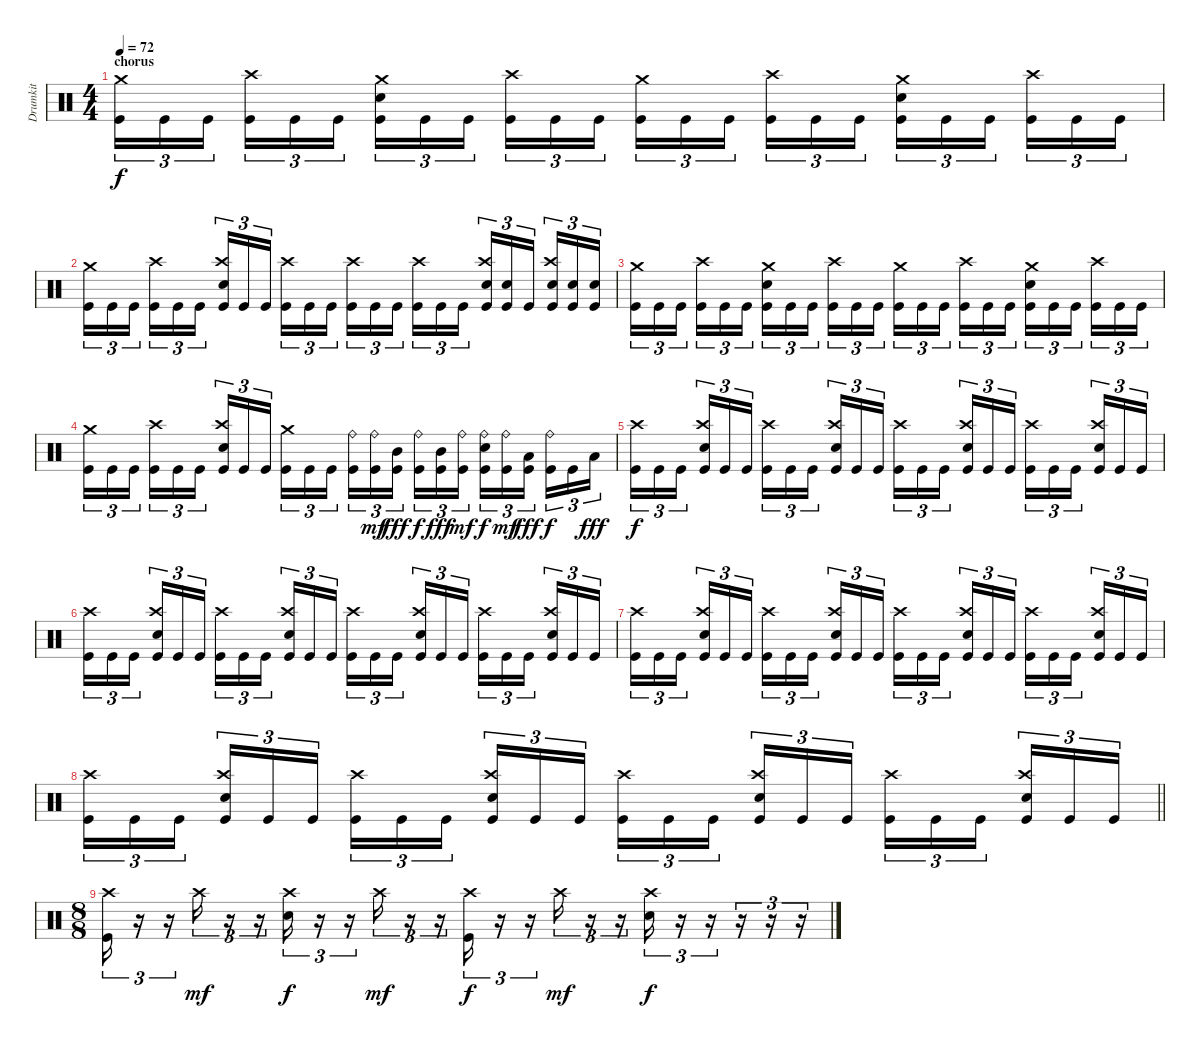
\track ("Drumkit" "Drumkit") {instrument percussion}
\staff
\articulation defaults
\ts (4 4)
\section ("" "chorus")
\tempo 72
\clef neutral
\ks c
("Crash medium (hit)" "Kick (hit)").16{tu (3 2) dy f} "Kick (hit)".16{tu (3 2)} "Kick (hit)".16{tu (3 2) beam splitsecondary} ("Crash high (hit)" "Kick (hit)").16{tu (3 2)} "Kick (hit)".16{tu (3 2)} "Kick (hit)".16{tu (3 2)} ("Crash medium (hit)" "Snare (hit) 2" "Kick (hit)").16{tu (3 2)} "Kick (hit)".16{tu (3 2)} "Kick (hit)".16{tu (3 2) beam splitsecondary} ("Crash high (hit)" "Kick (hit)").16{tu (3 2)} "Kick (hit)".16{tu (3 2)} "Kick (hit)".16{tu (3 2)} ("Crash medium (hit)" "Kick (hit)").16{tu (3 2)} "Kick (hit)".16{tu (3 2)} "Kick (hit)".16{tu (3 2) beam splitsecondary} ("Crash high (hit)" "Kick (hit)").16{tu (3 2)} "Kick (hit)".16{tu (3 2)} "Kick (hit)".16{tu (3 2)} ("Crash medium (hit)" "Snare (hit) 2" "Kick (hit)").16{tu (3 2)} "Kick (hit)".16{tu (3 2)} "Kick (hit)".16{tu (3 2) beam splitsecondary} ("Crash high (hit)" "Kick (hit)").16{tu (3 2)} "Kick (hit)".16{tu (3 2)} "Kick (hit)".16{tu (3 2)} |
("Crash medium (hit)" "Kick (hit)").16{tu (3 2)} "Kick (hit)".16{tu (3 2)} "Kick (hit)".16{tu (3 2) beam splitsecondary} ("Crash high (hit)" "Kick (hit)").16{tu (3 2)} "Kick (hit)".16{tu (3 2)} "Kick (hit)".16{tu (3 2)} ("Crash high (hit)" "Snare (hit) 2" "Kick (hit)").16{tu (3 2)} "Kick (hit)".16{tu (3 2)} "Kick (hit)".16{tu (3 2) beam splitsecondary} ("Crash high (hit)" "Kick (hit)").16{tu (3 2)} "Kick (hit)".16{tu (3 2)} "Kick (hit)".16{tu (3 2)} ("Crash high (hit)" "Kick (hit)").16{tu (3 2)} "Kick (hit)".16{tu (3 2)} "Kick (hit)".16{tu (3 2) beam splitsecondary} ("Crash high (hit)" "Kick (hit)").16{tu (3 2)} "Kick (hit)".16{tu (3 2)} "Kick (hit)".16{tu (3 2)} ("Crash high (hit)" "Snare (hit) 2" "Kick (hit)").16{tu (3 2)} ("Snare (hit) 2" "Kick (hit)").16{tu (3 2)} "Kick (hit)".16{tu (3 2) beam splitsecondary} ("Crash high (hit)" "Snare (hit) 2" "Kick (hit)").16{tu (3 2)} ("Snare (hit) 2" "Kick (hit)").16{tu (3 2)} ("Snare (hit) 2" "Kick (hit)").16{tu (3 2)} |
("Crash medium (hit)" "Kick (hit)").16{tu (3 2)} "Kick (hit)".16{tu (3 2)} "Kick (hit)".16{tu (3 2) beam splitsecondary} ("Crash high (hit)" "Kick (hit)").16{tu (3 2)} "Kick (hit)".16{tu (3 2)} "Kick (hit)".16{tu (3 2)} ("Crash medium (hit)" "Snare (hit) 2" "Kick (hit)").16{tu (3 2)} "Kick (hit)".16{tu (3 2)} "Kick (hit)".16{tu (3 2) beam splitsecondary} ("Crash high (hit)" "Kick (hit)").16{tu (3 2)} "Kick (hit)".16{tu (3 2)} "Kick (hit)".16{tu (3 2)} ("Crash medium (hit)" "Kick (hit)").16{tu (3 2)} "Kick (hit)".16{tu (3 2)} "Kick (hit)".16{tu (3 2) beam splitsecondary} ("Crash high (hit)" "Kick (hit)").16{tu (3 2)} "Kick (hit)".16{tu (3 2)} "Kick (hit)".16{tu (3 2)} ("Crash medium (hit)" "Snare (hit) 2" "Kick (hit)").16{tu (3 2)} "Kick (hit)".16{tu (3 2)} "Kick (hit)".16{tu (3 2) beam splitsecondary} ("Crash high (hit)" "Kick (hit)").16{tu (3 2)} "Kick (hit)".16{tu (3 2)} "Kick (hit)".16{tu (3 2)} |
("Crash medium (hit)" "Kick (hit)").16{tu (3 2)} "Kick (hit)".16{tu (3 2)} "Kick (hit)".16{tu (3 2) beam splitsecondary} ("Crash high (hit)" "Kick (hit)").16{tu (3 2)} "Kick (hit)".16{tu (3 2)} "Kick (hit)".16{tu (3 2)} ("Crash high (hit)" "Snare (hit) 2" "Kick (hit)").16{tu (3 2)} "Kick (hit)".16{tu (3 2)} "Kick (hit)".16{tu (3 2) beam splitsecondary} ("Crash medium (hit)" "Kick (hit)").16{tu (3 2)} "Kick (hit)".16{tu (3 2)} "Kick (hit)".16{tu (3 2)} ("Ride (bell)" "Kick (hit)").16{tu (3 2)} ("Ride (bell)" "Kick (hit)").16{tu (3 2) dy mf} ("Mid Tom (hit)" "Kick (hit)").16{tu (3 2) dy fff beam splitsecondary} ("Ride (bell)" "Kick (hit)").16{tu (3 2) dy f} ("Mid Tom (hit)" "Kick (hit)").16{tu (3 2) dy fff} ("Ride (bell)" "Kick (hit)").16{tu (3 2) dy mf} ("Ride (bell)" "Snare (hit) 2" "Kick (hit)").16{tu (3 2) dy f} ("Ride (bell)" "Kick (hit)").16{tu (3 2) dy mf} ("Low Tom (hit)" "Kick (hit)").16{tu (3 2) dy fff beam splitsecondary} ("Ride (bell)" "Kick (hit)").16{tu (3 2) dy f} "Kick (hit)".16{tu (3 2)} "Low Floor Tom (hit)".16{tu (3 2) dy fff} |
("Crash high (hit)" "Kick (hit)").16{tu (3 2) dy f} "Kick (hit)".16{tu (3 2)} "Kick (hit)".16{tu (3 2) beam splitsecondary} ("Crash high (hit)" "Snare (hit) 2" "Kick (hit)").16{tu (3 2)} "Kick (hit)".16{tu (3 2)} "Kick (hit)".16{tu (3 2)} ("Crash high (hit)" "Kick (hit)").16{tu (3 2)} "Kick (hit)".16{tu (3 2)} "Kick (hit)".16{tu (3 2) beam splitsecondary} ("Crash high (hit)" "Snare (hit) 2" "Kick (hit)").16{tu (3 2)} "Kick (hit)".16{tu (3 2)} "Kick (hit)".16{tu (3 2)} ("Crash high (hit)" "Kick (hit)").16{tu (3 2)} "Kick (hit)".16{tu (3 2)} "Kick (hit)".16{tu (3 2) beam splitsecondary} ("Crash high (hit)" "Snare (hit) 2" "Kick (hit)").16{tu (3 2)} "Kick (hit)".16{tu (3 2)} "Kick (hit)".16{tu (3 2)} ("Crash high (hit)" "Kick (hit)").16{tu (3 2)} "Kick (hit)".16{tu (3 2)} "Kick (hit)".16{tu (3 2) beam splitsecondary} ("Crash high (hit)" "Snare (hit) 2" "Kick (hit)").16{tu (3 2)} "Kick (hit)".16{tu (3 2)} "Kick (hit)".16{tu (3 2)} |
("Crash high (hit)" "Kick (hit)").16{tu (3 2)} "Kick (hit)".16{tu (3 2)} "Kick (hit)".16{tu (3 2) beam splitsecondary} ("Crash high (hit)" "Snare (hit) 2" "Kick (hit)").16{tu (3 2)} "Kick (hit)".16{tu (3 2)} "Kick (hit)".16{tu (3 2)} ("Crash high (hit)" "Kick (hit)").16{tu (3 2)} "Kick (hit)".16{tu (3 2)} "Kick (hit)".16{tu (3 2) beam splitsecondary} ("Crash high (hit)" "Snare (hit) 2" "Kick (hit)").16{tu (3 2)} "Kick (hit)".16{tu (3 2)} "Kick (hit)".16{tu (3 2)} ("Crash high (hit)" "Kick (hit)").16{tu (3 2)} "Kick (hit)".16{tu (3 2)} "Kick (hit)".16{tu (3 2) beam splitsecondary} ("Crash high (hit)" "Snare (hit) 2" "Kick (hit)").16{tu (3 2)} "Kick (hit)".16{tu (3 2)} "Kick (hit)".16{tu (3 2)} ("Crash high (hit)" "Kick (hit)").16{tu (3 2)} "Kick (hit)".16{tu (3 2)} "Kick (hit)".16{tu (3 2) beam splitsecondary} ("Crash high (hit)" "Snare (hit) 2" "Kick (hit)").16{tu (3 2)} "Kick (hit)".16{tu (3 2)} "Kick (hit)".16{tu (3 2)} |
("Crash high (hit)" "Kick (hit)").16{tu (3 2)} "Kick (hit)".16{tu (3 2)} "Kick (hit)".16{tu (3 2) beam splitsecondary} ("Crash high (hit)" "Snare (hit) 2" "Kick (hit)").16{tu (3 2)} "Kick (hit)".16{tu (3 2)} "Kick (hit)".16{tu (3 2)} ("Crash high (hit)" "Kick (hit)").16{tu (3 2)} "Kick (hit)".16{tu (3 2)} "Kick (hit)".16{tu (3 2) beam splitsecondary} ("Crash high (hit)" "Snare (hit) 2" "Kick (hit)").16{tu (3 2)} "Kick (hit)".16{tu (3 2)} "Kick (hit)".16{tu (3 2)} ("Crash high (hit)" "Kick (hit)").16{tu (3 2)} "Kick (hit)".16{tu (3 2)} "Kick (hit)".16{tu (3 2) beam splitsecondary} ("Crash high (hit)" "Snare (hit) 2" "Kick (hit)").16{tu (3 2)} "Kick (hit)".16{tu (3 2)} "Kick (hit)".16{tu (3 2)} ("Crash high (hit)" "Kick (hit)").16{tu (3 2)} "Kick (hit)".16{tu (3 2)} "Kick (hit)".16{tu (3 2) beam splitsecondary} ("Crash high (hit)" "Snare (hit) 2" "Kick (hit)").16{tu (3 2)} "Kick (hit)".16{tu (3 2)} "Kick (hit)".16{tu (3 2)} |
\barLineRight lightlight
("Crash high (hit)" "Kick (hit)").16{tu (3 2)} "Kick (hit)".16{tu (3 2)} "Kick (hit)".16{tu (3 2) beam splitsecondary} ("Crash high (hit)" "Snare (hit) 2" "Kick (hit)").16{tu (3 2)} "Kick (hit)".16{tu (3 2)} "Kick (hit)".16{tu (3 2)} ("Crash high (hit)" "Kick (hit)").16{tu (3 2)} "Kick (hit)".16{tu (3 2)} "Kick (hit)".16{tu (3 2) beam splitsecondary} ("Crash high (hit)" "Snare (hit) 2" "Kick (hit)").16{tu (3 2)} "Kick (hit)".16{tu (3 2)} "Kick (hit)".16{tu (3 2)} ("Crash high (hit)" "Kick (hit)").16{tu (3 2)} "Kick (hit)".16{tu (3 2)} "Kick (hit)".16{tu (3 2) beam splitsecondary} ("Crash high (hit)" "Snare (hit) 2" "Kick (hit)").16{tu (3 2)} "Kick (hit)".16{tu (3 2)} "Kick (hit)".16{tu (3 2)} ("Crash high (hit)" "Kick (hit)").16{tu (3 2)} "Kick (hit)".16{tu (3 2)} "Kick (hit)".16{tu (3 2) beam splitsecondary} ("Crash high (hit)" "Snare (hit) 2" "Kick (hit)").16{tu (3 2)} "Kick (hit)".16{tu (3 2)} "Kick (hit)".16{tu (3 2)} |
\ts (8 8)
("Crash high (hit)" "Kick (hit)").16{tu (3 2)} r.16{tu (3 2)} r.16{tu (3 2)} "Crash high (hit)".16{tu (3 2) dy mf} r.16{tu (3 2)} r.16{tu (3 2)} ("Crash high (hit)" "Snare (hit) 2").16{tu (3 2) dy f} r.16{tu (3 2)} r.16{tu (3 2)} "Crash high (hit)".16{tu (3 2) dy mf} r.16{tu (3 2)} r.16{tu (3 2)} ("Crash high (hit)" "Kick (hit)").16{tu (3 2) dy f} r.16{tu (3 2)} r.16{tu (3 2)} "Crash high (hit)".16{tu (3 2) dy mf} r.16{tu (3 2)} r.16{tu (3 2)} ("Crash high (hit)" "Snare (hit) 2").16{tu (3 2) dy f} r.16{tu (3 2)} r.16{tu (3 2)} r.16{tu (3 2)} r.16{tu (3 2)} r.16{tu (3 2)}
